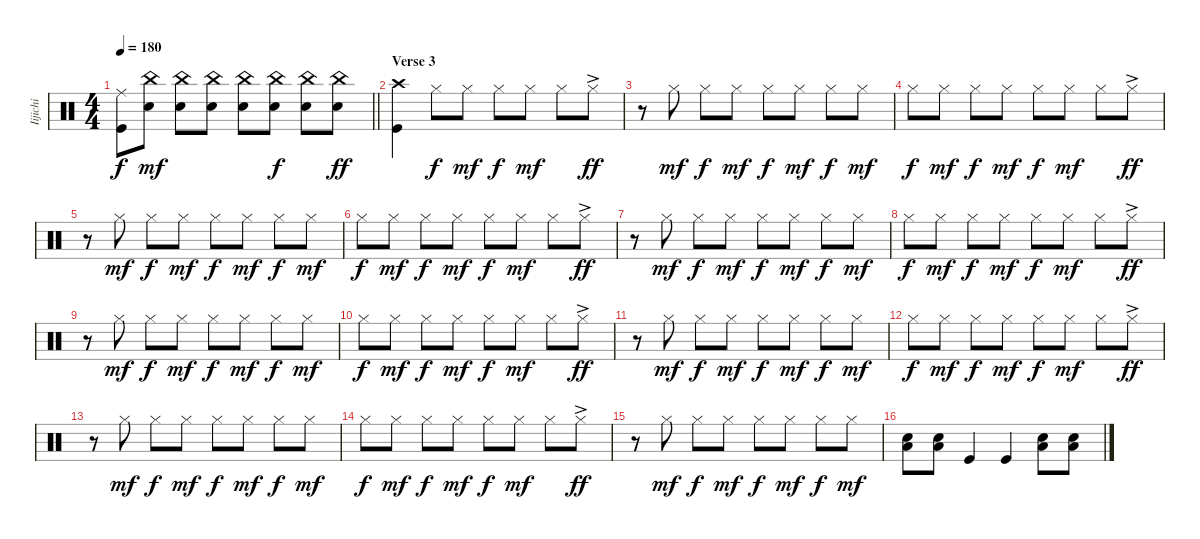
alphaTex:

\track ("Iijichi" "Iijichi") {instrument percussion}
\staff {score}
\articulation defaults
\ts (4 4)
\tempo 180
\clef neutral
\barLineRight lightlight
\ks c
("Ride (middle)" "Kick (hit)").8{dy f} ("Electric Snare (hit)" "China (hit)").8{dy mf} ("Electric Snare (hit)" "China (hit)").8 ("Electric Snare (hit)" "China (hit)").8 ("Electric Snare (hit)" "China (hit)").8 ("Electric Snare (hit)" "China (hit)").8{dy f} ("Electric Snare (hit)" "China (hit)").8 ("Electric Snare (hit)" "China (hit)").8{dy ff} |
\section ("" "Verse 3")
("Kick (hit)" "Crash high (hit)").4 "Hi-Hat (closed)".8{dy f volume 10} "Hi-Hat (closed)".8{dy mf} "Hi-Hat (closed)".8{dy f} "Hi-Hat (closed)".8{dy mf} "Hi-Hat (closed)".8 "Hi-Hat (closed)"{ac}.8{dy ff} |
r.8 "Hi-Hat (closed)".8{dy mf} "Hi-Hat (closed)".8{dy f} "Hi-Hat (closed)".8{dy mf} "Hi-Hat (closed)".8{dy f} "Hi-Hat (closed)".8{dy mf} "Hi-Hat (closed)".8{dy f} "Hi-Hat (closed)".8{dy mf} |
"Hi-Hat (closed)".8{dy f} "Hi-Hat (closed)".8{dy mf} "Hi-Hat (closed)".8{dy f} "Hi-Hat (closed)".8{dy mf} "Hi-Hat (closed)".8{dy f} "Hi-Hat (closed)".8{dy mf} "Hi-Hat (closed)".8 "Hi-Hat (closed)"{ac}.8{dy ff} |
r.8 "Hi-Hat (closed)".8{dy mf} "Hi-Hat (closed)".8{dy f} "Hi-Hat (closed)".8{dy mf} "Hi-Hat (closed)".8{dy f} "Hi-Hat (closed)".8{dy mf} "Hi-Hat (closed)".8{dy f} "Hi-Hat (closed)".8{dy mf} |
"Hi-Hat (closed)".8{dy f} "Hi-Hat (closed)".8{dy mf} "Hi-Hat (closed)".8{dy f} "Hi-Hat (closed)".8{dy mf} "Hi-Hat (closed)".8{dy f} "Hi-Hat (closed)".8{dy mf} "Hi-Hat (closed)".8 "Hi-Hat (closed)"{ac}.8{dy ff} |
r.8 "Hi-Hat (closed)".8{dy mf} "Hi-Hat (closed)".8{dy f} "Hi-Hat (closed)".8{dy mf} "Hi-Hat (closed)".8{dy f} "Hi-Hat (closed)".8{dy mf} "Hi-Hat (closed)".8{dy f} "Hi-Hat (closed)".8{dy mf} |
"Hi-Hat (closed)".8{dy f} "Hi-Hat (closed)".8{dy mf} "Hi-Hat (closed)".8{dy f} "Hi-Hat (closed)".8{dy mf} "Hi-Hat (closed)".8{dy f} "Hi-Hat (closed)".8{dy mf} "Hi-Hat (closed)".8 "Hi-Hat (closed)"{ac}.8{dy ff} |
r.8 "Hi-Hat (closed)".8{dy mf} "Hi-Hat (closed)".8{dy f} "Hi-Hat (closed)".8{dy mf} "Hi-Hat (closed)".8{dy f} "Hi-Hat (closed)".8{dy mf} "Hi-Hat (closed)".8{dy f} "Hi-Hat (closed)".8{dy mf} |
"Hi-Hat (closed)".8{dy f} "Hi-Hat (closed)".8{dy mf} "Hi-Hat (closed)".8{dy f} "Hi-Hat (closed)".8{dy mf} "Hi-Hat (closed)".8{dy f} "Hi-Hat (closed)".8{dy mf} "Hi-Hat (closed)".8 "Hi-Hat (closed)"{ac}.8{dy ff} |
r.8 "Hi-Hat (closed)".8{dy mf} "Hi-Hat (closed)".8{dy f} "Hi-Hat (closed)".8{dy mf} "Hi-Hat (closed)".8{dy f} "Hi-Hat (closed)".8{dy mf} "Hi-Hat (closed)".8{dy f} "Hi-Hat (closed)".8{dy mf} |
"Hi-Hat (closed)".8{dy f} "Hi-Hat (closed)".8{dy mf} "Hi-Hat (closed)".8{dy f} "Hi-Hat (closed)".8{dy mf} "Hi-Hat (closed)".8{dy f} "Hi-Hat (closed)".8{dy mf} "Hi-Hat (closed)".8 "Hi-Hat (closed)"{ac}.8{dy ff} |
r.8 "Hi-Hat (closed)".8{dy mf} "Hi-Hat (closed)".8{dy f} "Hi-Hat (closed)".8{dy mf} "Hi-Hat (closed)".8{dy f} "Hi-Hat (closed)".8{dy mf} "Hi-Hat (closed)".8{dy f} "Hi-Hat (closed)".8{dy mf} |
"Hi-Hat (closed)".8{dy f} "Hi-Hat (closed)".8{dy mf} "Hi-Hat (closed)".8{dy f} "Hi-Hat (closed)".8{dy mf} "Hi-Hat (closed)".8{dy f} "Hi-Hat (closed)".8{dy mf} "Hi-Hat (closed)".8 "Hi-Hat (closed)"{ac}.8{dy ff} |
r.8 "Hi-Hat (closed)".8{dy mf} "Hi-Hat (closed)".8{dy f} "Hi-Hat (closed)".8{dy mf} "Hi-Hat (closed)".8{dy f} "Hi-Hat (closed)".8{dy mf} "Hi-Hat (closed)".8{dy f} "Hi-Hat (closed)".8{dy mf} |
("Electric Snare (hit)" "Low Floor Tom (hit)").8{volume 12} ("Electric Snare (hit)" "Low Floor Tom (hit)").8 "Kick (hit)".4 "Kick (hit)".4 ("Electric Snare (hit)" "Low Floor Tom (hit)").8 ("Electric Snare (hit)" "Low Floor Tom (hit)").8
